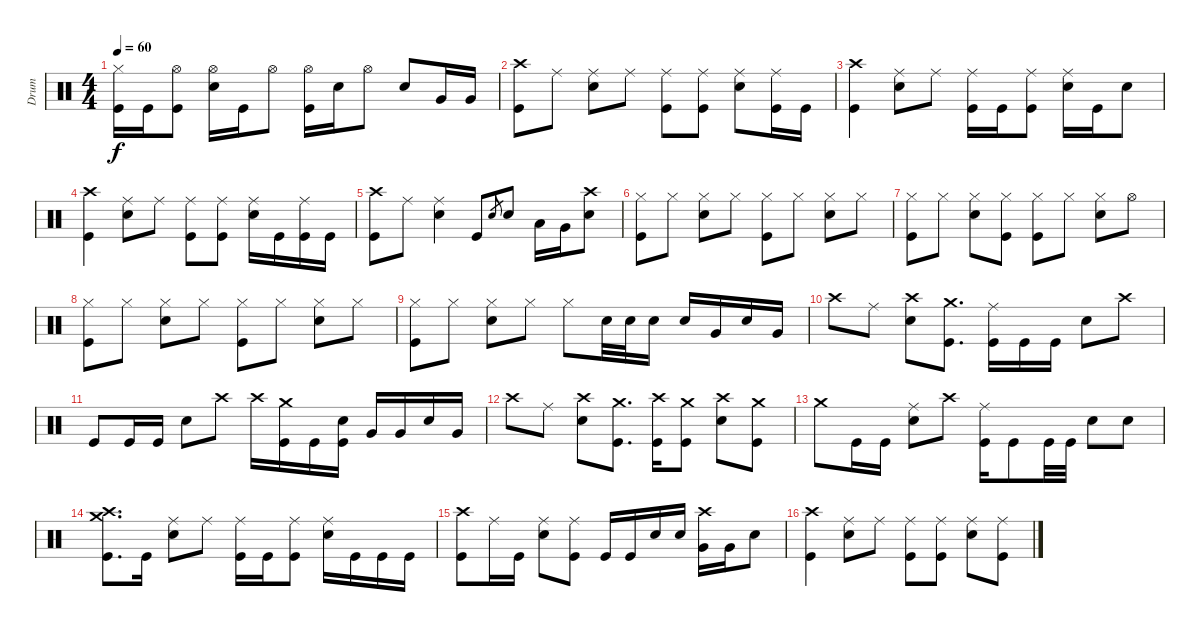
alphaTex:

\track ("Drum" "Drum") {instrument percussion}
\staff {score}
\articulation defaults
\ts (4 4)
\tempo 60
\clef neutral
\ks c
("Hi-Hat (closed)" "Kick (hit)").16{dy f} "Kick (hit)".16 ("Hi-Hat (open)" "Kick (hit)").8 ("Hi-Hat (open)" "Snare (hit) 2").16 "Kick (hit)".16 "Hi-Hat (open)".8 ("Hi-Hat (open)" "Kick (hit)").16 "Snare (hit) 2".16 "Hi-Hat (open)".8 "Snare (hit) 2".8 "Very Low Tom (hit)".16 "Very Low Tom (hit)".16 |
("Crash high (hit)" "Kick (hit)").8 "Ride (middle)".8 ("Ride (middle)" "Snare (hit) 2").8 "Ride (middle)".8 ("Ride (middle)" "Kick (hit)").8 ("Ride (middle)" "Kick (hit)").8 ("Ride (middle)" "Snare (hit) 2").8 ("Ride (middle)" "Kick (hit)").16 "Kick (hit)".16 |
("Crash high (hit)" "Kick (hit)").4 ("Ride (middle)" "Snare (hit) 2").8 "Ride (middle)".8 ("Ride (middle)" "Kick (hit)").16 "Kick (hit)".16 ("Ride (middle)" "Kick (hit)").8 ("Ride (middle)" "Snare (hit) 2").16 "Kick (hit)".16 "Snare (hit) 2".8 |
("Crash high (hit)" "Kick (hit)").4 ("Ride (middle)" "Snare (hit) 2").8 "Ride (middle)".8 ("Ride (middle)" "Kick (hit)").8 ("Ride (middle)" "Kick (hit)").8 ("Ride (middle)" "Snare (hit) 2").16 "Kick (hit)".16 ("Ride (middle)" "Kick (hit)").16 "Kick (hit)".16 |
("Crash high (hit)" "Kick (hit)").8 "Ride (middle)".8 ("Ride (middle)" "Snare (hit) 2").4 "Kick (hit)".8 "Snare (hit) 2".8{gr} "Snare (hit) 2".8 "Low Tom (hit)".16 "Very Low Tom (hit)".16 ("Crash high (hit)" "Snare (hit) 2").8 |
("Hi-Hat (closed)" "Kick (hit)").8 "Hi-Hat (closed)".8 ("Hi-Hat (closed)" "Snare (hit) 2").8 "Hi-Hat (closed)".8 ("Hi-Hat (closed)" "Kick (hit)").8 "Hi-Hat (closed)".8 ("Hi-Hat (closed)" "Snare (hit) 2").8 "Hi-Hat (closed)".8 |
("Hi-Hat (closed)" "Kick (hit)").8 "Hi-Hat (closed)".8 ("Hi-Hat (closed)" "Snare (hit) 2").8 ("Hi-Hat (closed)" "Kick (hit)").8 ("Hi-Hat (closed)" "Kick (hit)").8 "Hi-Hat (closed)".8 ("Hi-Hat (closed)" "Snare (hit) 2").8 "Hi-Hat (open)".8 |
("Hi-Hat (closed)" "Kick (hit)").8 "Hi-Hat (closed)".8 ("Hi-Hat (closed)" "Snare (hit) 2").8 "Hi-Hat (closed)".8 ("Hi-Hat (closed)" "Kick (hit)").8 "Hi-Hat (closed)".8 ("Hi-Hat (closed)" "Snare (hit) 2").8 "Hi-Hat (closed)".8 |
("Hi-Hat (closed)" "Kick (hit)").8 "Hi-Hat (closed)".8 ("Hi-Hat (closed)" "Snare (hit) 2").8 "Hi-Hat (closed)".8 "Hi-Hat (closed)".8 "Snare (hit) 2".32 "Snare (hit) 2".32 "Snare (hit) 2".16 "Snare (hit) 2".16 "Very Low Tom (hit)".16 "Snare (hit) 2".16 "Very Low Tom (hit)".16 |
"Crash high (hit)".8 "Ride (middle)".8 ("Crash high (hit)" "Snare (hit) 2").8 ("Crash medium (hit)" "Kick (hit)").8{d} ("Ride (middle)" "Kick (hit)").16 "Kick (hit)".16 "Kick (hit)".16 "Snare (hit) 2".8 "Crash high (hit)".8 |
"Kick (hit)".8 "Kick (hit)".16 "Kick (hit)".16 "Snare (hit) 2".8 "Crash high (hit)".8 "Crash high (hit)".16 ("Crash medium (hit)" "Kick (hit)").16 "Kick (hit)".16 ("Snare (hit) 2" "Kick (hit)").16 "Very Low Tom (hit)".16 "Very Low Tom (hit)".16 "Snare (hit) 2".16 "Very Low Tom (hit)".16 |
"Crash high (hit)".8 "Ride (middle)".8 ("Crash high (hit)" "Snare (hit) 2").8 ("Crash medium (hit)" "Kick (hit)").8{d} ("Crash high (hit)" "Kick (hit)").16 ("Crash medium (hit)" "Kick (hit)").8 ("Crash high (hit)" "Snare (hit) 2").8 ("Crash medium (hit)" "Kick (hit)").8 |
"Crash medium (hit)".8 "Kick (hit)".16 "Kick (hit)".16 ("Ride (middle)" "Snare (hit) 2").8 "Crash high (hit)".8 ("Ride (middle)" "Kick (hit)").16 "Kick (hit)".8 "Kick (hit)".32 "Kick (hit)".32 "Snare (hit) 2".8 "Snare (hit) 2".8 |
("Crash high (hit)" "Crash medium (hit)" "Kick (hit)").8{d} "Kick (hit)".16 ("Ride (middle)" "Snare (hit) 2").8 "Ride (middle)".8 ("Ride (middle)" "Kick (hit)").16 "Kick (hit)".16 ("Ride (middle)" "Kick (hit)").8 ("Ride (middle)" "Snare (hit) 2").16 "Kick (hit)".16 "Kick (hit)".16 "Kick (hit)".16 |
("Crash high (hit)" "Kick (hit)").8 "Ride (middle)".16 "Kick (hit)".16 ("Ride (middle)" "Snare (hit) 2").8 ("Ride (middle)" "Kick (hit)").8 "Kick (hit)".16 "Kick (hit)".16 "Snare (hit) 2".16 "Snare (hit) 2".16 ("Crash high (hit)" "Very Low Tom (hit)").16 "Very Low Tom (hit)".16 "Snare (hit) 2".8 |
("Crash high (hit)" "Kick (hit)").4 ("Ride (middle)" "Snare (hit) 2").8 "Ride (middle)".8 ("Ride (middle)" "Kick (hit)").8 ("Ride (middle)" "Kick (hit)").8 ("Ride (middle)" "Snare (hit) 2").8 ("Ride (middle)" "Kick (hit)").8
